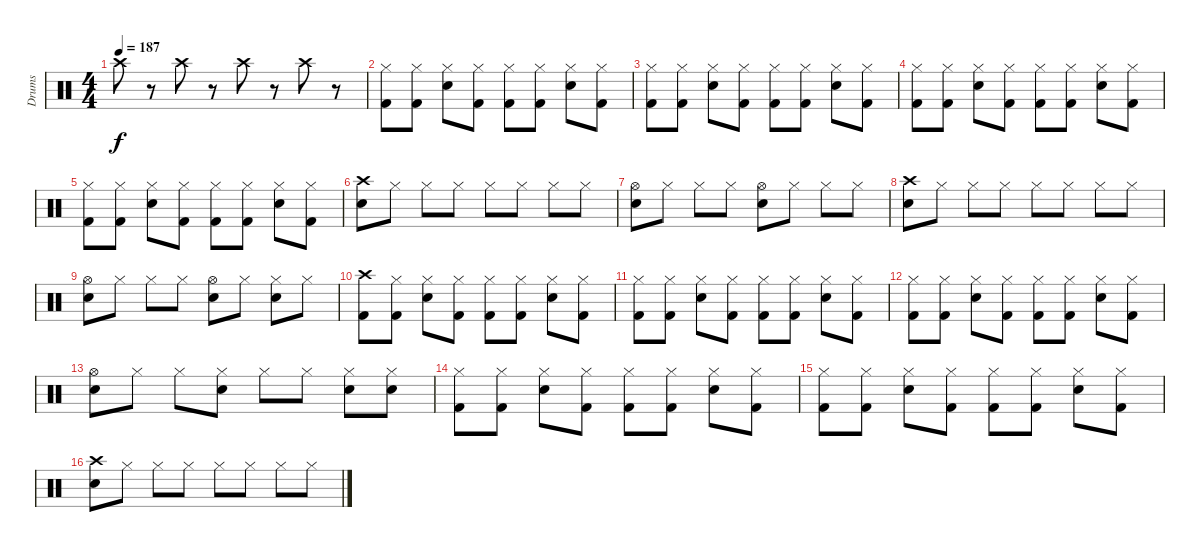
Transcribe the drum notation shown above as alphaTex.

\track ("Drums" "Drums") {instrument percussion}
\staff {score}
\articulation defaults
\ts (4 4)
\tempo 187
\clef neutral
\ks c "Crash high (hit)".8{dy f}
r.8 "Crash high (hit)".8 r.8 "Crash high (hit)".8 r.8 "Crash high (hit)".8 r.8 |
("Kick (hit) 2" "Hi-Hat (closed)").8 ("Kick (hit) 2" "Hi-Hat (closed)").8 ("Electric Snare (hit)" "Hi-Hat (closed)").8 ("Kick (hit) 2" "Hi-Hat (closed)").8 ("Kick (hit) 2" "Hi-Hat (closed)").8 ("Kick (hit) 2" "Hi-Hat (closed)").8 ("Electric Snare (hit)" "Hi-Hat (closed)").8 ("Kick (hit) 2" "Hi-Hat (closed)").8 |
("Kick (hit) 2" "Hi-Hat (closed)").8 ("Kick (hit) 2" "Hi-Hat (closed)").8 ("Electric Snare (hit)" "Hi-Hat (closed)").8 ("Kick (hit) 2" "Hi-Hat (closed)").8 ("Kick (hit) 2" "Hi-Hat (closed)").8 ("Kick (hit) 2" "Hi-Hat (closed)").8 ("Electric Snare (hit)" "Hi-Hat (closed)").8 ("Kick (hit) 2" "Hi-Hat (closed)").8 |
("Kick (hit) 2" "Hi-Hat (closed)").8 ("Kick (hit) 2" "Hi-Hat (closed)").8 ("Electric Snare (hit)" "Hi-Hat (closed)").8 ("Kick (hit) 2" "Hi-Hat (closed)").8 ("Kick (hit) 2" "Hi-Hat (closed)").8 ("Kick (hit) 2" "Hi-Hat (closed)").8 ("Electric Snare (hit)" "Hi-Hat (closed)").8 ("Kick (hit) 2" "Hi-Hat (closed)").8 |
("Kick (hit) 2" "Hi-Hat (closed)").8 ("Kick (hit) 2" "Hi-Hat (closed)").8 ("Electric Snare (hit)" "Hi-Hat (closed)").8 ("Kick (hit) 2" "Hi-Hat (closed)").8 ("Kick (hit) 2" "Hi-Hat (closed)").8 ("Kick (hit) 2" "Hi-Hat (closed)").8 ("Electric Snare (hit)" "Hi-Hat (closed)").8 ("Kick (hit) 2" "Hi-Hat (closed)").8 |
("Electric Snare (hit)" "Crash high (hit)").8 "Hi-Hat (closed)".8 "Hi-Hat (closed)".8 "Hi-Hat (closed)".8 "Hi-Hat (closed)".8 "Hi-Hat (closed)".8 "Hi-Hat (closed)".8 "Hi-Hat (closed)".8 |
("Electric Snare (hit)" "Hi-Hat (open)").8 "Hi-Hat (closed)".8 "Hi-Hat (closed)".8 "Hi-Hat (closed)".8 ("Snare (hit) 2" "Hi-Hat (open)").8 "Hi-Hat (closed)".8 "Hi-Hat (closed)".8 "Hi-Hat (closed)".8 |
("Electric Snare (hit)" "Crash high (hit)").8 "Hi-Hat (closed)".8 "Hi-Hat (closed)".8 "Hi-Hat (closed)".8 "Hi-Hat (closed)".8 "Hi-Hat (closed)".8 "Hi-Hat (closed)".8 "Hi-Hat (closed)".8 |
("Electric Snare (hit)" "Hi-Hat (open)").8 "Hi-Hat (closed)".8 "Hi-Hat (closed)".8 "Hi-Hat (closed)".8 ("Snare (hit) 2" "Hi-Hat (open)").8 "Hi-Hat (closed)".8 ("Snare (hit) 2" "Hi-Hat (closed)").8 "Hi-Hat (closed)".8 |
("Crash high (hit)" "Kick (hit) 2").8 ("Hi-Hat (closed)" "Kick (hit) 2").8 ("Hi-Hat (closed)" "Snare (hit) 2").8 ("Kick (hit) 2" "Hi-Hat (closed)").8 ("Hi-Hat (closed)" "Kick (hit) 2").8 ("Kick (hit) 2" "Hi-Hat (closed)").8 ("Electric Snare (hit)" "Hi-Hat (closed)").8 ("Kick (hit) 2" "Hi-Hat (closed)").8 |
("Hi-Hat (closed)" "Kick (hit) 2").8 ("Hi-Hat (closed)" "Kick (hit) 2").8 ("Hi-Hat (closed)" "Snare (hit) 2").8 ("Kick (hit) 2" "Hi-Hat (closed)").8 ("Hi-Hat (closed)" "Kick (hit) 2").8 ("Hi-Hat (closed)" "Kick (hit) 2").8 ("Hi-Hat (closed)" "Snare (hit) 2").8 ("Kick (hit) 2" "Hi-Hat (closed)").8 |
("Hi-Hat (closed)" "Kick (hit) 2").8 ("Hi-Hat (closed)" "Kick (hit) 2").8 ("Hi-Hat (closed)" "Snare (hit) 2").8 ("Kick (hit) 2" "Hi-Hat (closed)").8 ("Hi-Hat (closed)" "Kick (hit) 2").8 ("Hi-Hat (closed)" "Kick (hit) 2").8 ("Hi-Hat (closed)" "Snare (hit) 2").8 ("Kick (hit) 2" "Hi-Hat (closed)").8 |
("Hi-Hat (open)" "Snare (hit) 2").8 "Hi-Hat (closed)".8 "Hi-Hat (closed)".8 ("Snare (hit) 2" "Hi-Hat (closed)").8 "Hi-Hat (closed)".8 "Hi-Hat (closed)".8 ("Hi-Hat (closed)" "Snare (hit) 2").8 ("Hi-Hat (closed)" "Snare (hit) 2").8 |
("Hi-Hat (closed)" "Kick (hit) 2").8 ("Hi-Hat (closed)" "Kick (hit) 2").8 ("Hi-Hat (closed)" "Snare (hit) 2").8 ("Kick (hit) 2" "Hi-Hat (closed)").8 ("Hi-Hat (closed)" "Kick (hit) 2").8 ("Hi-Hat (closed)" "Kick (hit) 2").8 ("Hi-Hat (closed)" "Snare (hit) 2").8 ("Kick (hit) 2" "Hi-Hat (closed)").8 |
("Hi-Hat (closed)" "Kick (hit) 2").8 ("Hi-Hat (closed)" "Kick (hit) 2").8 ("Hi-Hat (closed)" "Snare (hit) 2").8 ("Kick (hit) 2" "Hi-Hat (closed)").8 ("Hi-Hat (closed)" "Kick (hit) 2").8 ("Hi-Hat (closed)" "Kick (hit) 2").8 ("Hi-Hat (closed)" "Snare (hit) 2").8 ("Kick (hit) 2" "Hi-Hat (closed)").8 |
("Electric Snare (hit)" "Crash high (hit)").8 "Hi-Hat (closed)".8 "Hi-Hat (closed)".8 "Hi-Hat (closed)".8 "Hi-Hat (closed)".8 "Hi-Hat (closed)".8 "Hi-Hat (closed)".8 "Hi-Hat (closed)".8
